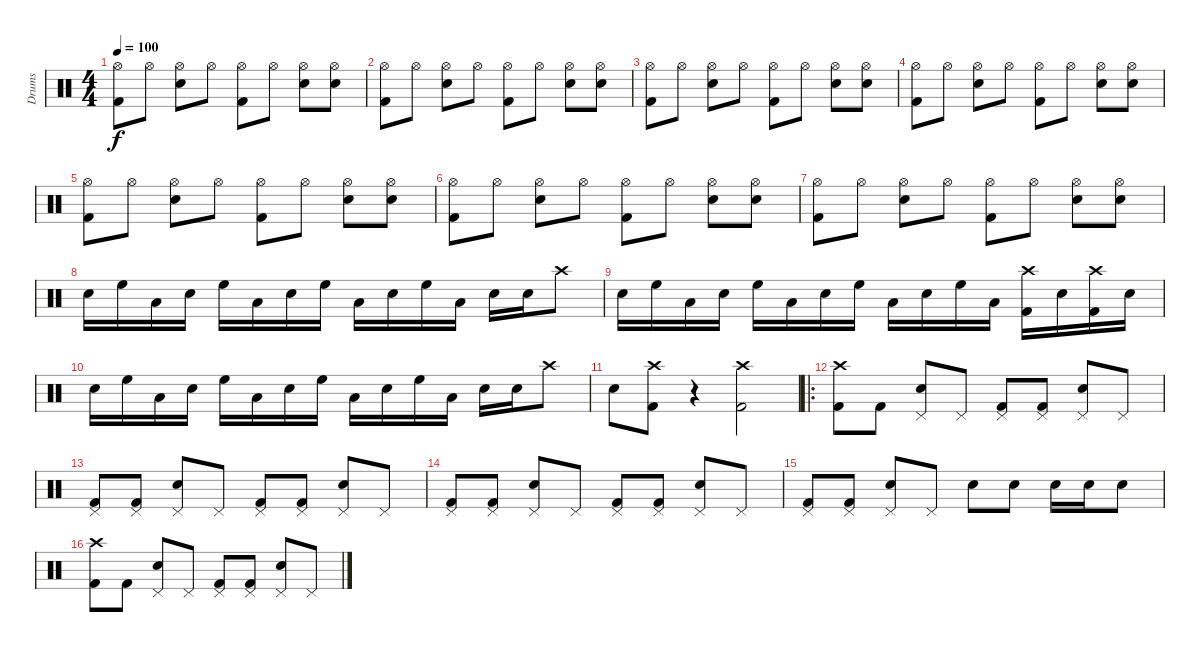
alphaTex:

\track ("Drums" "Drums") {instrument percussion}
\staff {score}
\articulation defaults
\ts (4 4)
\tempo 100
\clef neutral
\ks c
("Hi-Hat (open)" "Kick (hit) 2").8{dy f} "Hi-Hat (open)".8 ("Hi-Hat (open)" "Snare (hit) 2").8 "Hi-Hat (open)".8 ("Hi-Hat (open)" "Kick (hit) 2").8 "Hi-Hat (open)".8 ("Hi-Hat (open)" "Snare (hit) 2").8 ("Hi-Hat (open)" "Snare (hit) 2").8 |
("Hi-Hat (open)" "Kick (hit) 2").8 "Hi-Hat (open)".8 ("Hi-Hat (open)" "Snare (hit) 2").8 "Hi-Hat (open)".8 ("Hi-Hat (open)" "Kick (hit) 2").8 "Hi-Hat (open)".8 ("Hi-Hat (open)" "Snare (hit) 2").8 ("Hi-Hat (open)" "Snare (hit) 2").8 |
("Hi-Hat (open)" "Kick (hit) 2").8 "Hi-Hat (open)".8 ("Hi-Hat (open)" "Snare (hit) 2").8 "Hi-Hat (open)".8 ("Hi-Hat (open)" "Kick (hit) 2").8 "Hi-Hat (open)".8 ("Hi-Hat (open)" "Snare (hit) 2").8 ("Hi-Hat (open)" "Snare (hit) 2").8 |
("Hi-Hat (open)" "Kick (hit) 2").8 "Hi-Hat (open)".8 ("Hi-Hat (open)" "Snare (hit) 2").8 "Hi-Hat (open)".8 ("Hi-Hat (open)" "Kick (hit) 2").8 "Hi-Hat (open)".8 ("Hi-Hat (open)" "Snare (hit) 2").8 ("Hi-Hat (open)" "Snare (hit) 2").8 |
("Hi-Hat (open)" "Kick (hit) 2").8 "Hi-Hat (open)".8 ("Hi-Hat (open)" "Snare (hit) 2").8 "Hi-Hat (open)".8 ("Hi-Hat (open)" "Kick (hit) 2").8 "Hi-Hat (open)".8 ("Hi-Hat (open)" "Snare (hit) 2").8 ("Hi-Hat (open)" "Snare (hit) 2").8 |
("Hi-Hat (open)" "Kick (hit) 2").8 "Hi-Hat (open)".8 ("Hi-Hat (open)" "Snare (hit) 2").8 "Hi-Hat (open)".8 ("Hi-Hat (open)" "Kick (hit) 2").8 "Hi-Hat (open)".8 ("Hi-Hat (open)" "Snare (hit) 2").8 ("Hi-Hat (open)" "Snare (hit) 2").8 |
("Hi-Hat (open)" "Kick (hit) 2").8 "Hi-Hat (open)".8 ("Hi-Hat (open)" "Snare (hit) 2").8 "Hi-Hat (open)".8 ("Hi-Hat (open)" "Kick (hit) 2").8 "Hi-Hat (open)".8 ("Hi-Hat (open)" "Snare (hit) 2").8 ("Hi-Hat (open)" "Snare (hit) 2").8 |
"Snare (hit) 2".16 "High Floor Tom (hit)".16 "Low Tom (hit)".16 "Snare (hit) 2".16 "High Floor Tom (hit)".16 "Low Tom (hit)".16 "Snare (hit) 2".16 "High Floor Tom (hit)".16 "Low Tom (hit)".16 "Snare (hit) 2".16 "High Floor Tom (hit)".16 "Low Tom (hit)".16 "Snare (hit) 2".16 "Snare (hit) 2".16 "Crash high (hit)".8 |
"Snare (hit) 2".16 "High Floor Tom (hit)".16 "Low Tom (hit)".16 "Snare (hit) 2".16 "High Floor Tom (hit)".16 "Low Tom (hit)".16 "Snare (hit) 2".16 "High Floor Tom (hit)".16 "Low Tom (hit)".16 "Snare (hit) 2".16 "High Floor Tom (hit)".16 "Low Tom (hit)".16 ("Crash high (hit)" "Kick (hit) 2").16 "Snare (hit) 2".16 ("Crash high (hit)" "Kick (hit) 2").16 "Snare (hit) 2".16 |
"Snare (hit) 2".16 "High Floor Tom (hit)".16 "Low Tom (hit)".16 "Snare (hit) 2".16 "High Floor Tom (hit)".16 "Low Tom (hit)".16 "Snare (hit) 2".16 "High Floor Tom (hit)".16 "Low Tom (hit)".16 "Snare (hit) 2".16 "High Floor Tom (hit)".16 "Low Tom (hit)".16 "Snare (hit) 2".16 "Snare (hit) 2".16 "Crash high (hit)".8 |
"Snare (hit) 2".8 ("Crash high (hit)" "Kick (hit) 2").8 r.4 ("Crash high (hit)" "Kick (hit) 2").2 |
\ro
("Crash high (hit)" "Kick (hit) 2").8 "Kick (hit) 2".8 ("Pedal Hi-Hat (hit)" "Snare (hit) 2").8 "Pedal Hi-Hat (hit)".8 ("Pedal Hi-Hat (hit)" "Kick (hit) 2").8 ("Pedal Hi-Hat (hit)" "Kick (hit) 2").8 ("Pedal Hi-Hat (hit)" "Snare (hit) 2").8 "Pedal Hi-Hat (hit)".8 |
("Pedal Hi-Hat (hit)" "Kick (hit) 2").8 ("Pedal Hi-Hat (hit)" "Kick (hit) 2").8 ("Pedal Hi-Hat (hit)" "Snare (hit) 2").8 "Pedal Hi-Hat (hit)".8 ("Pedal Hi-Hat (hit)" "Kick (hit) 2").8 ("Pedal Hi-Hat (hit)" "Kick (hit) 2").8 ("Pedal Hi-Hat (hit)" "Snare (hit) 2").8 "Pedal Hi-Hat (hit)".8 |
("Pedal Hi-Hat (hit)" "Kick (hit) 2").8 ("Pedal Hi-Hat (hit)" "Kick (hit) 2").8 ("Pedal Hi-Hat (hit)" "Snare (hit) 2").8 "Pedal Hi-Hat (hit)".8 ("Pedal Hi-Hat (hit)" "Kick (hit) 2").8 ("Pedal Hi-Hat (hit)" "Kick (hit) 2").8 ("Pedal Hi-Hat (hit)" "Snare (hit) 2").8 "Pedal Hi-Hat (hit)".8 |
("Pedal Hi-Hat (hit)" "Kick (hit) 2").8 ("Pedal Hi-Hat (hit)" "Kick (hit) 2").8 ("Pedal Hi-Hat (hit)" "Snare (hit) 2").8 "Pedal Hi-Hat (hit)".8 "Snare (hit) 2".8 "Snare (hit) 2".8 "Snare (hit) 2".16 "Snare (hit) 2".16 "Snare (hit) 2".8 |
("Crash high (hit)" "Kick (hit) 2").8 "Kick (hit) 2".8 ("Pedal Hi-Hat (hit)" "Snare (hit) 2").8 "Pedal Hi-Hat (hit)".8 ("Pedal Hi-Hat (hit)" "Kick (hit) 2").8 ("Pedal Hi-Hat (hit)" "Kick (hit) 2").8 ("Pedal Hi-Hat (hit)" "Snare (hit) 2").8 "Pedal Hi-Hat (hit)".8
